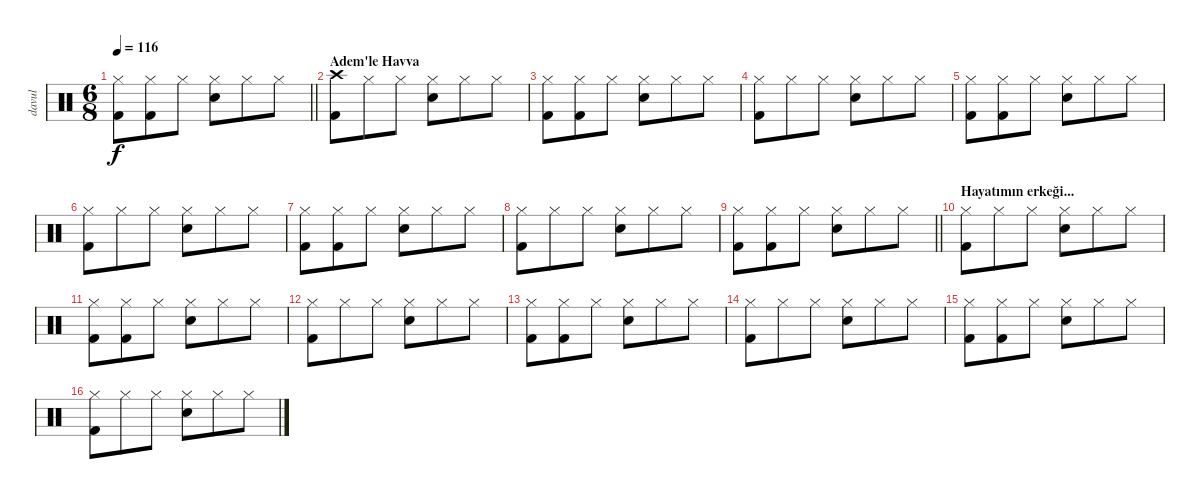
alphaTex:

\track ("davul" "davul") {instrument percussion}
\staff {score}
\articulation defaults
\ts (6 8)
\tempo 116
\clef neutral
\barLineRight lightlight
\ks c
("Hi-Hat (closed)" "Kick (hit) 2").8{dy f} ("Hi-Hat (closed)" "Kick (hit) 2").8 "Hi-Hat (closed)".8 ("Hi-Hat (closed)" "Electric Snare (hit)").8 "Hi-Hat (closed)".8 "Hi-Hat (closed)".8 |
\section ("" "Adem'le Havva")
("Crash high (hit)" "Kick (hit) 2").8 "Hi-Hat (closed)".8 "Hi-Hat (closed)".8 ("Hi-Hat (closed)" "Electric Snare (hit)").8 "Hi-Hat (closed)".8 "Hi-Hat (closed)".8 |
("Hi-Hat (closed)" "Kick (hit) 2").8 ("Hi-Hat (closed)" "Kick (hit) 2").8 "Hi-Hat (closed)".8 ("Hi-Hat (closed)" "Electric Snare (hit)").8 "Hi-Hat (closed)".8 "Hi-Hat (closed)".8 |
("Hi-Hat (closed)" "Kick (hit) 2").8 "Hi-Hat (closed)".8 "Hi-Hat (closed)".8 ("Hi-Hat (closed)" "Electric Snare (hit)").8 "Hi-Hat (closed)".8 "Hi-Hat (closed)".8 |
("Hi-Hat (closed)" "Kick (hit) 2").8 ("Hi-Hat (closed)" "Kick (hit) 2").8 "Hi-Hat (closed)".8 ("Hi-Hat (closed)" "Electric Snare (hit)").8 "Hi-Hat (closed)".8 "Hi-Hat (closed)".8 |
("Hi-Hat (closed)" "Kick (hit) 2").8 "Hi-Hat (closed)".8 "Hi-Hat (closed)".8 ("Hi-Hat (closed)" "Electric Snare (hit)").8 "Hi-Hat (closed)".8 "Hi-Hat (closed)".8 |
("Hi-Hat (closed)" "Kick (hit) 2").8 ("Hi-Hat (closed)" "Kick (hit) 2").8 "Hi-Hat (closed)".8 ("Hi-Hat (closed)" "Electric Snare (hit)").8 "Hi-Hat (closed)".8 "Hi-Hat (closed)".8 |
("Hi-Hat (closed)" "Kick (hit) 2").8 "Hi-Hat (closed)".8 "Hi-Hat (closed)".8 ("Hi-Hat (closed)" "Electric Snare (hit)").8 "Hi-Hat (closed)".8 "Hi-Hat (closed)".8 |
\barLineRight lightlight
("Hi-Hat (closed)" "Kick (hit) 2").8 ("Hi-Hat (closed)" "Kick (hit) 2").8 "Hi-Hat (closed)".8 ("Hi-Hat (closed)" "Electric Snare (hit)").8 "Hi-Hat (closed)".8 "Hi-Hat (closed)".8 |
\section ("" "Hayatımın erkeği...")
("Hi-Hat (closed)" "Kick (hit) 2").8 "Hi-Hat (closed)".8 "Hi-Hat (closed)".8 ("Hi-Hat (closed)" "Electric Snare (hit)").8 "Hi-Hat (closed)".8 "Hi-Hat (closed)".8 |
("Hi-Hat (closed)" "Kick (hit) 2").8 ("Hi-Hat (closed)" "Kick (hit) 2").8 "Hi-Hat (closed)".8 ("Hi-Hat (closed)" "Electric Snare (hit)").8 "Hi-Hat (closed)".8 "Hi-Hat (closed)".8 |
("Hi-Hat (closed)" "Kick (hit) 2").8 "Hi-Hat (closed)".8 "Hi-Hat (closed)".8 ("Hi-Hat (closed)" "Electric Snare (hit)").8 "Hi-Hat (closed)".8 "Hi-Hat (closed)".8 |
("Hi-Hat (closed)" "Kick (hit) 2").8 ("Hi-Hat (closed)" "Kick (hit) 2").8 "Hi-Hat (closed)".8 ("Hi-Hat (closed)" "Electric Snare (hit)").8 "Hi-Hat (closed)".8 "Hi-Hat (closed)".8 |
("Hi-Hat (closed)" "Kick (hit) 2").8 "Hi-Hat (closed)".8 "Hi-Hat (closed)".8 ("Hi-Hat (closed)" "Electric Snare (hit)").8 "Hi-Hat (closed)".8 "Hi-Hat (closed)".8 |
("Hi-Hat (closed)" "Kick (hit) 2").8 ("Hi-Hat (closed)" "Kick (hit) 2").8 "Hi-Hat (closed)".8 ("Hi-Hat (closed)" "Electric Snare (hit)").8 "Hi-Hat (closed)".8 "Hi-Hat (closed)".8 |
("Hi-Hat (closed)" "Kick (hit) 2").8 "Hi-Hat (closed)".8 "Hi-Hat (closed)".8 ("Hi-Hat (closed)" "Electric Snare (hit)").8 "Hi-Hat (closed)".8 "Hi-Hat (closed)".8
